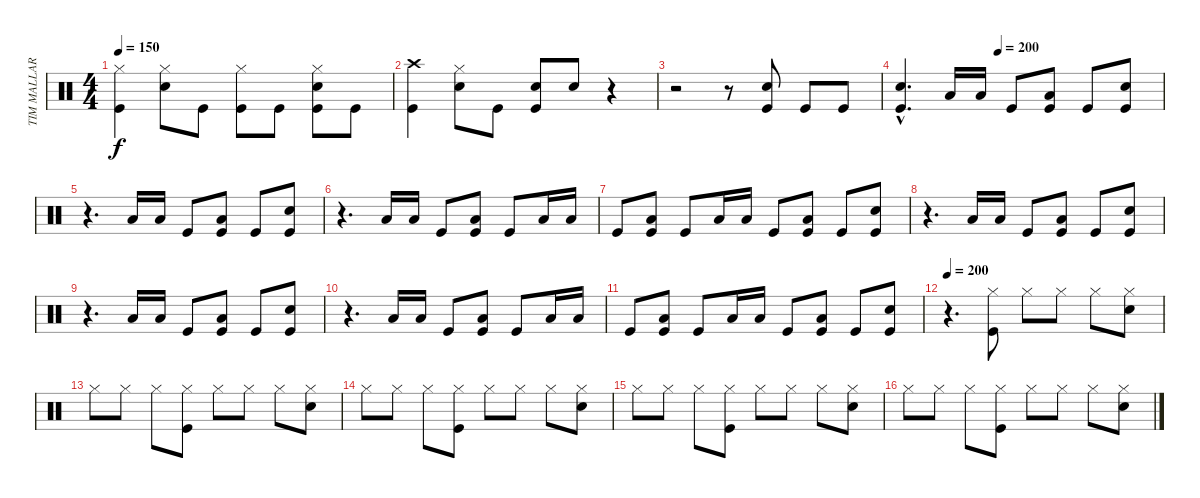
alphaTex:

\track ("TIM MALLARE - drums" "TIM MALLAR") {instrument percussion}
\staff {score}
\articulation defaults
\ts (4 4)
\tempo 150
\clef neutral
\ks c
("Hi-Hat (closed)" "Kick (hit)").4{dy f} ("Hi-Hat (closed)" "Electric Snare (hit)").8 "Kick (hit)".8 ("Hi-Hat (closed)" "Kick (hit)").8 "Kick (hit)".8 ("Hi-Hat (closed)" "Electric Snare (hit)" "Kick (hit)").8 "Kick (hit)".8 |
("Crash high (hit)" "Kick (hit)").4 ("Hi-Hat (closed)" "Electric Snare (hit)").8 "Kick (hit)".8 ("Electric Snare (hit)" "Kick (hit)").8 "Electric Snare (hit)".8 r.4 |
r.2 r.8 ("Electric Snare (hit)" "Kick (hit)").8 "Kick (hit)".8 "Kick (hit)".8 |
\tempo (200 0.375)
("Electric Snare (hit)"{hac} "Kick (hit)"{hac}).4{d} "Low Tom (hit)".16 "Low Tom (hit)".16 "Kick (hit)".8 ("Low Tom (hit)" "Kick (hit)").8 "Kick (hit)".8 ("Electric Snare (hit)" "Kick (hit)").8 |
r.4{d} "Low Tom (hit)".16 "Low Tom (hit)".16 "Kick (hit)".8 ("Low Tom (hit)" "Kick (hit)").8 "Kick (hit)".8 ("Electric Snare (hit)" "Kick (hit)").8 |
r.4{d} "Low Tom (hit)".16 "Low Tom (hit)".16 "Kick (hit)".8 ("Low Tom (hit)" "Kick (hit)").8 "Kick (hit)".8 "Low Tom (hit)".16 "Low Tom (hit)".16 |
"Kick (hit)".8 ("Low Tom (hit)" "Kick (hit)").8 "Kick (hit)".8 "Low Tom (hit)".16 "Low Tom (hit)".16 "Kick (hit)".8 ("Low Tom (hit)" "Kick (hit)").8 "Kick (hit)".8 ("Electric Snare (hit)" "Kick (hit)").8 |
r.4{d} "Low Tom (hit)".16 "Low Tom (hit)".16 "Kick (hit)".8 ("Low Tom (hit)" "Kick (hit)").8 "Kick (hit)".8 ("Electric Snare (hit)" "Kick (hit)").8 |
r.4{d} "Low Tom (hit)".16 "Low Tom (hit)".16 "Kick (hit)".8 ("Low Tom (hit)" "Kick (hit)").8 "Kick (hit)".8 ("Electric Snare (hit)" "Kick (hit)").8 |
r.4{d} "Low Tom (hit)".16 "Low Tom (hit)".16 "Kick (hit)".8 ("Low Tom (hit)" "Kick (hit)").8 "Kick (hit)".8 "Low Tom (hit)".16 "Low Tom (hit)".16 |
"Kick (hit)".8 ("Low Tom (hit)" "Kick (hit)").8 "Kick (hit)".8 "Low Tom (hit)".16 "Low Tom (hit)".16 "Kick (hit)".8 ("Low Tom (hit)" "Kick (hit)").8 "Kick (hit)".8 ("Electric Snare (hit)" "Kick (hit)").8 |
\tempo 200
r.4{d} ("Hi-Hat (closed)" "Kick (hit)").8 "Hi-Hat (closed)".8 "Hi-Hat (closed)".8 "Hi-Hat (closed)".8 ("Hi-Hat (closed)" "Electric Snare (hit)").8 |
"Hi-Hat (closed)".8 "Hi-Hat (closed)".8 "Hi-Hat (closed)".8 ("Hi-Hat (closed)" "Kick (hit)").8 "Hi-Hat (closed)".8 "Hi-Hat (closed)".8 "Hi-Hat (closed)".8 ("Hi-Hat (closed)" "Electric Snare (hit)").8 |
"Hi-Hat (closed)".8 "Hi-Hat (closed)".8 "Hi-Hat (closed)".8 ("Hi-Hat (closed)" "Kick (hit)").8 "Hi-Hat (closed)".8 "Hi-Hat (closed)".8 "Hi-Hat (closed)".8 ("Hi-Hat (closed)" "Electric Snare (hit)").8 |
"Hi-Hat (closed)".8 "Hi-Hat (closed)".8 "Hi-Hat (closed)".8 ("Hi-Hat (closed)" "Kick (hit)").8 "Hi-Hat (closed)".8 "Hi-Hat (closed)".8 "Hi-Hat (closed)".8 ("Hi-Hat (closed)" "Electric Snare (hit)").8 |
"Hi-Hat (closed)".8 "Hi-Hat (closed)".8 "Hi-Hat (closed)".8 ("Hi-Hat (closed)" "Kick (hit)").8 "Hi-Hat (closed)".8 "Hi-Hat (closed)".8 "Hi-Hat (closed)".8 ("Hi-Hat (closed)" "Electric Snare (hit)").8
